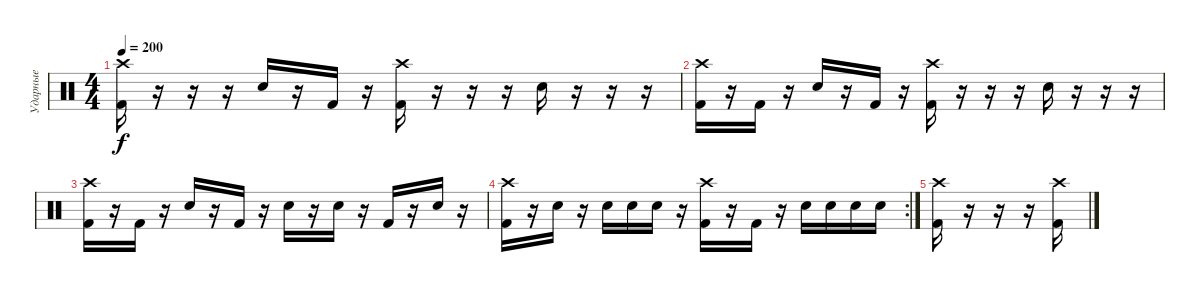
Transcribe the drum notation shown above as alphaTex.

\track ("Ударные" "Ударные") {solo instrument percussion}
\staff {score}
\articulation defaults
\ts (4 4)
\tempo 200
\clef neutral
\ks c
("Crash high (hit)" "Kick (hit) 2").16{dy f} r.16 r.16 r.16 "Electric Snare (hit)".16 r.16 "Kick (hit) 2".16 r.16 ("Crash high (hit)" "Kick (hit) 2").16 r.16 r.16 r.16 "Electric Snare (hit)".16 r.16 r.16 r.16 |
("Crash high (hit)" "Kick (hit) 2").16 r.16 "Kick (hit) 2".16 r.16 "Electric Snare (hit)".16 r.16 "Kick (hit) 2".16 r.16 ("Crash high (hit)" "Kick (hit) 2").16 r.16 r.16 r.16 "Electric Snare (hit)".16 r.16 r.16 r.16 |
("Crash high (hit)" "Kick (hit) 2").16 r.16 "Kick (hit) 2".16 r.16 "Electric Snare (hit)".16 r.16 "Kick (hit) 2".16 r.16 "Electric Snare (hit)".16 r.16 "Electric Snare (hit)".16 r.16 "Kick (hit) 2".16 r.16 "Electric Snare (hit)".16 r.16 |
\rc 2
("Crash high (hit)" "Kick (hit) 2").16 r.16 "Electric Snare (hit)".16 r.16 "Electric Snare (hit)".16 "Electric Snare (hit)".16 "Electric Snare (hit)".16 r.16 ("Crash high (hit)" "Kick (hit) 2").16 r.16 "Kick (hit) 2".16 r.16 "Electric Snare (hit)".16 "Electric Snare (hit)".16 "Electric Snare (hit)".16 "Electric Snare (hit)".16 |
("Crash high (hit)" "Kick (hit) 2").16 r.16 r.16 r.16 ("Crash high (hit)" "Kick (hit) 2").16
